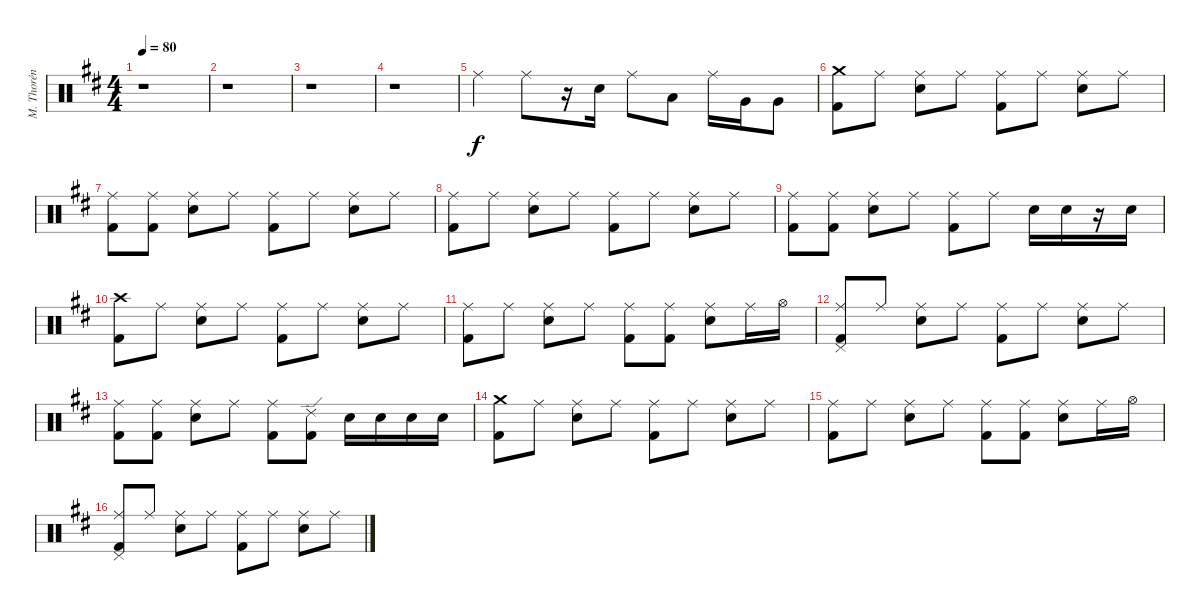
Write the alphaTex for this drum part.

\track ("M. Thorén (Drums)" "M. Thorén ") {instrument percussion}
\staff {score}
\articulation defaults
\ts (4 4)
\tempo 80
\clef neutral
\ks bminor
r.1{dy f} |
r.1 |
r.1 |
r.1 |
"Ride (middle)".4 "Ride (middle)".8 r.16 "Electric Snare (hit)".16 "Ride (middle)".8 "Low Tom (hit)".8 "Ride (middle)".16 "Very Low Tom (hit)".16 "Very Low Tom (hit)".8 |
("Crash medium (hit)" "Kick (hit) 2").8 "Ride (middle)".8 ("Ride (middle)" "Electric Snare (hit)").8 "Ride (middle)".8 ("Ride (middle)" "Kick (hit) 2").8 "Ride (middle)".8 ("Ride (middle)" "Electric Snare (hit)").8 "Ride (middle)".8 |
("Ride (middle)" "Kick (hit) 2").8 ("Ride (middle)" "Kick (hit) 2").8 ("Ride (middle)" "Electric Snare (hit)").8 "Ride (middle)".8 ("Ride (middle)" "Kick (hit) 2").8 "Ride (middle)".8 ("Ride (middle)" "Electric Snare (hit)").8 "Ride (middle)".8 |
("Ride (middle)" "Kick (hit) 2").8 "Ride (middle)".8 ("Ride (middle)" "Electric Snare (hit)").8 "Ride (middle)".8 ("Ride (middle)" "Kick (hit) 2").8 "Ride (middle)".8 ("Ride (middle)" "Electric Snare (hit)").8 "Ride (middle)".8 |
("Ride (middle)" "Kick (hit) 2").8 ("Ride (middle)" "Kick (hit) 2").8 ("Ride (middle)" "Electric Snare (hit)").8 "Ride (middle)".8 ("Ride (middle)" "Kick (hit) 2").8 "Ride (middle)".8 "Electric Snare (hit)".16 "Electric Snare (hit)".16 r.16 "Electric Snare (hit)".16 |
("Crash high (hit)" "Kick (hit) 2").8 "Ride (middle)".8 ("Ride (middle)" "Electric Snare (hit)").8 "Ride (middle)".8 ("Ride (middle)" "Kick (hit) 2").8 "Ride (middle)".8 ("Ride (middle)" "Electric Snare (hit)").8 "Ride (middle)".8 |
("Ride (middle)" "Kick (hit) 2").8 "Ride (middle)".8 ("Ride (middle)" "Electric Snare (hit)").8 "Ride (middle)".8 ("Ride (middle)" "Kick (hit) 2").8 ("Ride (middle)" "Kick (hit) 2").8 ("Ride (middle)" "Electric Snare (hit)").8 "Ride (middle)".16 "Hi-Hat (open)".16 |
("Ride (middle)" "Pedal Hi-Hat (hit)" "Kick (hit) 2").8 "Ride (middle)".8 ("Ride (middle)" "Electric Snare (hit)").8 "Ride (middle)".8 ("Ride (middle)" "Kick (hit) 2").8 "Ride (middle)".8 ("Ride (middle)" "Electric Snare (hit)").8 "Ride (middle)".8 |
("Ride (middle)" "Kick (hit) 2").8 ("Ride (middle)" "Kick (hit) 2").8 ("Ride (middle)" "Electric Snare (hit)").8 "Ride (middle)".8 ("Ride (middle)" "Kick (hit) 2").8 ("Ride (edge) 2" "Kick (hit) 2").8 "Electric Snare (hit)".16 "Electric Snare (hit)".16 "Electric Snare (hit)".16 "Electric Snare (hit)".16 |
("Crash medium (hit)" "Kick (hit) 2").8 "Ride (middle)".8 ("Ride (middle)" "Electric Snare (hit)").8 "Ride (middle)".8 ("Ride (middle)" "Kick (hit) 2").8 "Ride (middle)".8 ("Ride (middle)" "Electric Snare (hit)").8 "Ride (middle)".8 |
("Ride (middle)" "Kick (hit) 2").8 "Ride (middle)".8 ("Ride (middle)" "Electric Snare (hit)").8 "Ride (middle)".8 ("Ride (middle)" "Kick (hit) 2").8 ("Ride (middle)" "Kick (hit) 2").8 ("Ride (middle)" "Electric Snare (hit)").8 "Ride (middle)".16 "Hi-Hat (open)".16 |
("Ride (middle)" "Pedal Hi-Hat (hit)" "Kick (hit) 2").8 "Ride (middle)".8 ("Ride (middle)" "Electric Snare (hit)").8 "Ride (middle)".8 ("Ride (middle)" "Kick (hit) 2").8 "Ride (middle)".8 ("Ride (middle)" "Electric Snare (hit)").8 "Ride (middle)".8
